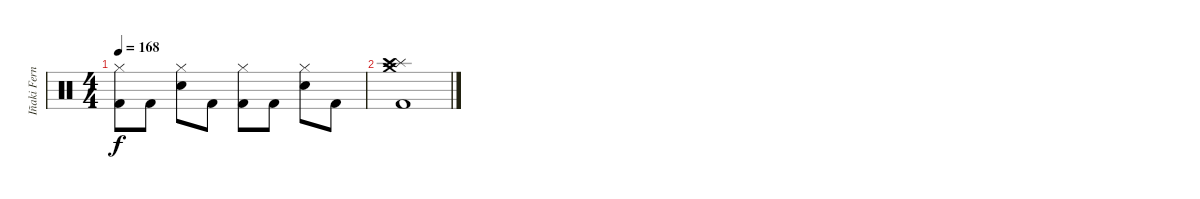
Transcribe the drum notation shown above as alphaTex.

\track ("Iñaki Fernández" "Iñaki Fern") {instrument percussion}
\staff {score}
\articulation defaults
\ts (4 4)
\tempo 168
\clef neutral
\ks c
("Hi-Hat (closed)" "Kick (hit) 2").8{dy f} "Kick (hit) 2".8 ("Hi-Hat (closed)" "Snare (hit) 2").8 "Kick (hit) 2".8 ("Hi-Hat (closed)" "Kick (hit) 2").8 "Kick (hit) 2".8 ("Hi-Hat (closed)" "Snare (hit) 2").8 "Kick (hit) 2".8 |
("Splash (hit)" "Crash medium (hit)" "Crash high (hit)" "Kick (hit) 2").1
